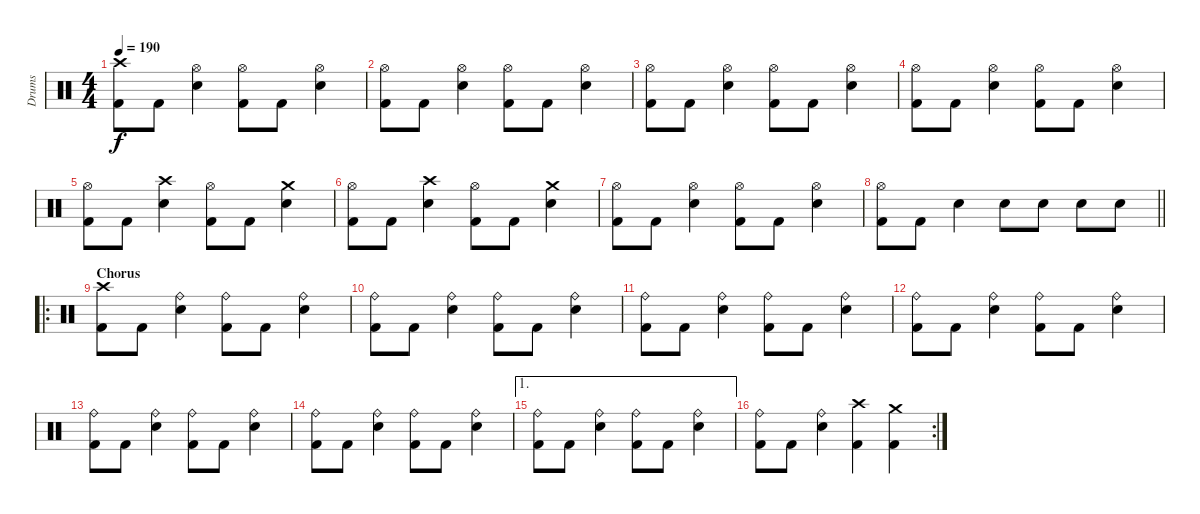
\track ("Drums" "Drums") {instrument percussion}
\staff {score}
\articulation defaults
\ts (4 4)
\tempo 190
\clef neutral
\ks c
("Crash high (hit)" "Kick (hit) 2").8{dy f} "Kick (hit) 2".8 ("Hi-Hat (open)" "Snare (hit) 2").4 ("Hi-Hat (open)" "Kick (hit) 2").8 "Kick (hit) 2".8 ("Hi-Hat (open)" "Snare (hit) 2").4 |
("Hi-Hat (open)" "Kick (hit) 2").8 "Kick (hit) 2".8 ("Hi-Hat (open)" "Snare (hit) 2").4 ("Hi-Hat (open)" "Kick (hit) 2").8 "Kick (hit) 2".8 ("Hi-Hat (open)" "Snare (hit) 2").4 |
("Hi-Hat (open)" "Kick (hit) 2").8 "Kick (hit) 2".8 ("Hi-Hat (open)" "Snare (hit) 2").4 ("Hi-Hat (open)" "Kick (hit) 2").8 "Kick (hit) 2".8 ("Hi-Hat (open)" "Snare (hit) 2").4 |
("Hi-Hat (open)" "Kick (hit) 2").8 "Kick (hit) 2".8 ("Hi-Hat (open)" "Snare (hit) 2").4 ("Hi-Hat (open)" "Kick (hit) 2").8 "Kick (hit) 2".8 ("Hi-Hat (open)" "Snare (hit) 2").4 |
("Hi-Hat (open)" "Kick (hit) 2").8 "Kick (hit) 2".8 ("Crash high (hit)" "Snare (hit) 2").4 ("Hi-Hat (open)" "Kick (hit) 2").8 "Kick (hit) 2".8 ("Crash medium (hit)" "Snare (hit) 2").4 |
("Hi-Hat (open)" "Kick (hit) 2").8 "Kick (hit) 2".8 ("Crash high (hit)" "Snare (hit) 2").4 ("Hi-Hat (open)" "Kick (hit) 2").8 "Kick (hit) 2".8 ("Crash medium (hit)" "Snare (hit) 2").4 |
("Hi-Hat (open)" "Kick (hit) 2").8 "Kick (hit) 2".8 ("Hi-Hat (open)" "Snare (hit) 2").4 ("Hi-Hat (open)" "Kick (hit) 2").8 "Kick (hit) 2".8 ("Hi-Hat (open)" "Snare (hit) 2").4 |
\barLineRight lightlight
("Hi-Hat (open)" "Kick (hit) 2").8 "Kick (hit) 2".8 "Snare (hit) 2".4 "Snare (hit) 2".8 "Snare (hit) 2".8 "Snare (hit) 2".8 "Snare (hit) 2".8 |
\ro
\section ("" "Chorus")
("Crash high (hit)" "Kick (hit) 2").8 "Kick (hit) 2".8 ("Ride (bell)" "Snare (hit) 2").4 ("Ride (bell)" "Kick (hit) 2").8 "Kick (hit) 2".8 ("Ride (bell)" "Snare (hit) 2").4 |
("Ride (bell)" "Kick (hit) 2").8 "Kick (hit) 2".8 ("Ride (bell)" "Snare (hit) 2").4 ("Ride (bell)" "Kick (hit) 2").8 "Kick (hit) 2".8 ("Ride (bell)" "Snare (hit) 2").4 |
("Ride (bell)" "Kick (hit) 2").8 "Kick (hit) 2".8 ("Ride (bell)" "Snare (hit) 2").4 ("Ride (bell)" "Kick (hit) 2").8 "Kick (hit) 2".8 ("Ride (bell)" "Snare (hit) 2").4 |
("Ride (bell)" "Kick (hit) 2").8 "Kick (hit) 2".8 ("Ride (bell)" "Snare (hit) 2").4 ("Ride (bell)" "Kick (hit) 2").8 "Kick (hit) 2".8 ("Ride (bell)" "Snare (hit) 2").4 |
("Ride (bell)" "Kick (hit) 2").8 "Kick (hit) 2".8 ("Ride (bell)" "Snare (hit) 2").4 ("Ride (bell)" "Kick (hit) 2").8 "Kick (hit) 2".8 ("Ride (bell)" "Snare (hit) 2").4 |
("Ride (bell)" "Kick (hit) 2").8 "Kick (hit) 2".8 ("Ride (bell)" "Snare (hit) 2").4 ("Ride (bell)" "Kick (hit) 2").8 "Kick (hit) 2".8 ("Ride (bell)" "Snare (hit) 2").4 |
\ae 1
("Ride (bell)" "Kick (hit) 2").8 "Kick (hit) 2".8 ("Ride (bell)" "Snare (hit) 2").4 ("Ride (bell)" "Kick (hit) 2").8 "Kick (hit) 2".8 ("Ride (bell)" "Snare (hit) 2").4 |
\rc 2
("Ride (bell)" "Kick (hit) 2").8 "Kick (hit) 2".8 ("Ride (bell)" "Snare (hit) 2").4 ("Crash high (hit)" "Kick (hit) 2").4 ("Crash medium (hit)" "Kick (hit) 2").4
